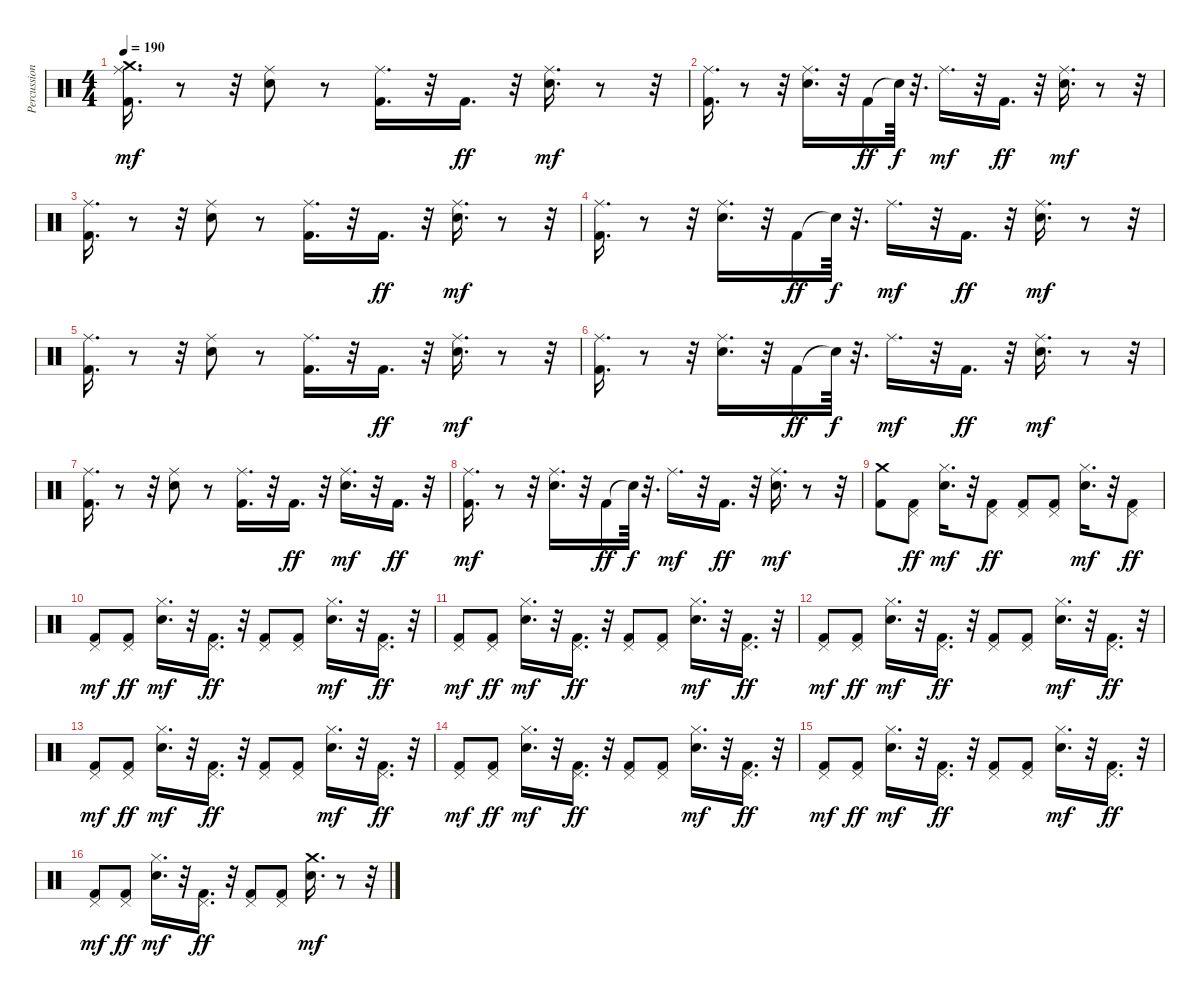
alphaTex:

\track ("Percussion" "Percussion") {instrument percussion}
\staff {score}
\articulation defaults
\ts (4 4)
\tempo 190
\clef neutral
\ks c
("Kick (hit) 2" "Ride (middle)" "Crash medium (hit)").16{d dy mf} r.8 r.32 ("Electric Snare (hit)" "Ride (middle)").8 r.8 ("Kick (hit) 2" "Ride (middle)").16{d} r.32 "Kick (hit) 2".16{d dy ff} r.32 ("Electric Snare (hit)" "Ride (middle)").16{d dy mf} r.8 r.32 |
("Kick (hit) 2" "Ride (middle)").16{d} r.8 r.32 ("Electric Snare (hit)" "Ride (middle)").16{d} r.32 "Kick (hit) 2".16{dy ff} "Snare (hit)"{t}.64{dy f} r.32{d} "Ride (middle)".16{d dy mf} r.32 "Kick (hit) 2".16{d dy ff} r.32 ("Electric Snare (hit)" "Ride (middle)").16{d dy mf} r.8 r.32 |
("Kick (hit) 2" "Ride (middle)").16{d} r.8 r.32 ("Electric Snare (hit)" "Ride (middle)").8 r.8 ("Kick (hit) 2" "Ride (middle)").16{d} r.32 "Kick (hit) 2".16{d dy ff} r.32 ("Electric Snare (hit)" "Ride (middle)").16{d dy mf} r.8 r.32 |
("Kick (hit) 2" "Ride (middle)").16{d} r.8 r.32 ("Electric Snare (hit)" "Ride (middle)").16{d} r.32 "Kick (hit) 2".16{dy ff} "Snare (hit)"{t}.64{dy f} r.32{d} "Ride (middle)".16{d dy mf} r.32 "Kick (hit) 2".16{d dy ff} r.32 ("Electric Snare (hit)" "Ride (middle)").16{d dy mf} r.8 r.32 |
("Kick (hit) 2" "Ride (middle)").16{d} r.8 r.32 ("Electric Snare (hit)" "Ride (middle)").8 r.8 ("Kick (hit) 2" "Ride (middle)").16{d} r.32 "Kick (hit) 2".16{d dy ff} r.32 ("Electric Snare (hit)" "Ride (middle)").16{d dy mf} r.8 r.32 |
("Kick (hit) 2" "Ride (middle)").16{d} r.8 r.32 ("Electric Snare (hit)" "Ride (middle)").16{d} r.32 "Kick (hit) 2".16{dy ff} "Snare (hit)"{t}.64{dy f} r.32{d} "Ride (middle)".16{d dy mf} r.32 "Kick (hit) 2".16{d dy ff} r.32 ("Electric Snare (hit)" "Ride (middle)").16{d dy mf} r.8 r.32 |
("Kick (hit) 2" "Ride (middle)").16{d} r.8 r.32 ("Electric Snare (hit)" "Ride (middle)").8 r.8 ("Kick (hit) 2" "Ride (middle)").16{d} r.32 "Kick (hit) 2".16{d dy ff} r.32 ("Electric Snare (hit)" "Ride (middle)").16{d dy mf} r.32 "Kick (hit) 2".16{d dy ff} r.32 |
("Kick (hit) 2" "Ride (middle)").16{d dy mf} r.8 r.32 ("Electric Snare (hit)" "Ride (middle)").16{d} r.32 "Kick (hit) 2".16{dy ff} "Snare (hit)"{t}.64{dy f} r.32{d} "Ride (middle)".16{d dy mf} r.32 "Kick (hit) 2".16{d dy ff} r.32 ("Electric Snare (hit)" "Ride (middle)").16{d dy mf} r.8 r.32 |
("Kick (hit) 2" "Crash medium (hit)").8 ("Pedal Hi-Hat (hit)" "Kick (hit) 2").8{dy ff} ("Electric Snare (hit)" "Hi-Hat (closed)").16{d dy mf} r.32 ("Pedal Hi-Hat (hit)" "Kick (hit) 2").8{dy ff} ("Pedal Hi-Hat (hit)" "Kick (hit) 2").8 ("Pedal Hi-Hat (hit)" "Kick (hit) 2").8 ("Electric Snare (hit)" "Hi-Hat (closed)").16{d dy mf} r.32 ("Pedal Hi-Hat (hit)" "Kick (hit) 2").8{dy ff} |
("Kick (hit) 2" "Pedal Hi-Hat (hit)").8{dy mf} ("Pedal Hi-Hat (hit)" "Kick (hit) 2").8{dy ff} ("Electric Snare (hit)" "Hi-Hat (closed)").16{d dy mf} r.32 ("Pedal Hi-Hat (hit)" "Kick (hit) 2").16{d dy ff} r.32 ("Pedal Hi-Hat (hit)" "Kick (hit) 2").8 ("Pedal Hi-Hat (hit)" "Kick (hit) 2").8 ("Electric Snare (hit)" "Hi-Hat (closed)").16{d dy mf} r.32 ("Pedal Hi-Hat (hit)" "Kick (hit) 2").16{d dy ff} r.32 |
("Kick (hit) 2" "Pedal Hi-Hat (hit)").8{dy mf} ("Pedal Hi-Hat (hit)" "Kick (hit) 2").8{dy ff} ("Electric Snare (hit)" "Hi-Hat (closed)").16{d dy mf} r.32 ("Pedal Hi-Hat (hit)" "Kick (hit) 2").16{d dy ff} r.32 ("Pedal Hi-Hat (hit)" "Kick (hit) 2").8 ("Pedal Hi-Hat (hit)" "Kick (hit) 2").8 ("Electric Snare (hit)" "Hi-Hat (closed)").16{d dy mf} r.32 ("Pedal Hi-Hat (hit)" "Kick (hit) 2").16{d dy ff} r.32 |
("Kick (hit) 2" "Pedal Hi-Hat (hit)").8{dy mf} ("Pedal Hi-Hat (hit)" "Kick (hit) 2").8{dy ff} ("Electric Snare (hit)" "Hi-Hat (closed)").16{d dy mf} r.32 ("Pedal Hi-Hat (hit)" "Kick (hit) 2").16{d dy ff} r.32 ("Pedal Hi-Hat (hit)" "Kick (hit) 2").8 ("Pedal Hi-Hat (hit)" "Kick (hit) 2").8 ("Electric Snare (hit)" "Hi-Hat (closed)").16{d dy mf} r.32 ("Pedal Hi-Hat (hit)" "Kick (hit) 2").16{d dy ff} r.32 |
("Kick (hit) 2" "Pedal Hi-Hat (hit)").8{dy mf} ("Pedal Hi-Hat (hit)" "Kick (hit) 2").8{dy ff} ("Electric Snare (hit)" "Hi-Hat (closed)").16{d dy mf} r.32 ("Pedal Hi-Hat (hit)" "Kick (hit) 2").16{d dy ff} r.32 ("Pedal Hi-Hat (hit)" "Kick (hit) 2").8 ("Pedal Hi-Hat (hit)" "Kick (hit) 2").8 ("Electric Snare (hit)" "Hi-Hat (closed)").16{d dy mf} r.32 ("Pedal Hi-Hat (hit)" "Kick (hit) 2").16{d dy ff} r.32 |
("Kick (hit) 2" "Pedal Hi-Hat (hit)").8{dy mf} ("Pedal Hi-Hat (hit)" "Kick (hit) 2").8{dy ff} ("Electric Snare (hit)" "Hi-Hat (closed)").16{d dy mf} r.32 ("Pedal Hi-Hat (hit)" "Kick (hit) 2").16{d dy ff} r.32 ("Pedal Hi-Hat (hit)" "Kick (hit) 2").8 ("Pedal Hi-Hat (hit)" "Kick (hit) 2").8 ("Electric Snare (hit)" "Hi-Hat (closed)").16{d dy mf} r.32 ("Pedal Hi-Hat (hit)" "Kick (hit) 2").16{d dy ff} r.32 |
("Kick (hit) 2" "Pedal Hi-Hat (hit)").8{dy mf} ("Pedal Hi-Hat (hit)" "Kick (hit) 2").8{dy ff} ("Electric Snare (hit)" "Hi-Hat (closed)").16{d dy mf} r.32 ("Pedal Hi-Hat (hit)" "Kick (hit) 2").16{d dy ff} r.32 ("Pedal Hi-Hat (hit)" "Kick (hit) 2").8 ("Pedal Hi-Hat (hit)" "Kick (hit) 2").8 ("Electric Snare (hit)" "Hi-Hat (closed)").16{d dy mf} r.32 ("Pedal Hi-Hat (hit)" "Kick (hit) 2").16{d dy ff} r.32 |
("Kick (hit) 2" "Pedal Hi-Hat (hit)").8{dy mf} ("Pedal Hi-Hat (hit)" "Kick (hit) 2").8{dy ff} ("Electric Snare (hit)" "Hi-Hat (closed)").16{d dy mf} r.32 ("Pedal Hi-Hat (hit)" "Kick (hit) 2").16{d dy ff} r.32 ("Pedal Hi-Hat (hit)" "Kick (hit) 2").8 ("Pedal Hi-Hat (hit)" "Kick (hit) 2").8 ("Electric Snare (hit)" "Crash medium (hit)").16{d dy mf} r.8 r.32
